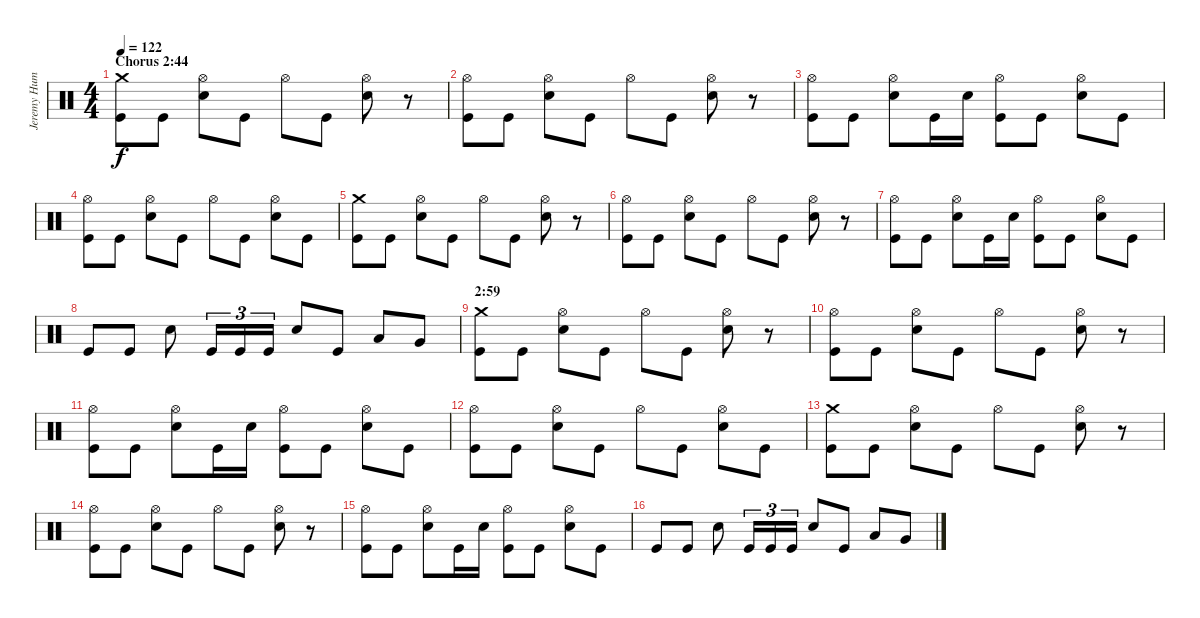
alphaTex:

\track ("Jeremy Hummel Drums]" "Jeremy Hum") {instrument percussion}
\staff {score}
\articulation defaults
\ts (4 4)
\section ("" "Chorus 2:44")
\tempo 122
\clef neutral
\ks c
("Crash medium (hit)" "Kick (hit)").8{dy f} "Kick (hit)".8 ("Hi-Hat (open)" "Electric Snare (hit)").8 "Kick (hit)".8 "Hi-Hat (open)".8 "Kick (hit)".8 ("Hi-Hat (open)" "Electric Snare (hit)").8 r.8 |
("Hi-Hat (open)" "Kick (hit)").8 "Kick (hit)".8 ("Hi-Hat (open)" "Electric Snare (hit)").8 "Kick (hit)".8 "Hi-Hat (open)".8 "Kick (hit)".8 ("Hi-Hat (open)" "Electric Snare (hit)").8 r.8 |
("Hi-Hat (open)" "Kick (hit)").8 "Kick (hit)".8 ("Hi-Hat (open)" "Electric Snare (hit)").8 "Kick (hit)".16 "Electric Snare (hit)".16 ("Hi-Hat (open)" "Kick (hit)").8 "Kick (hit)".8 ("Hi-Hat (open)" "Electric Snare (hit)").8 "Kick (hit)".8 |
("Hi-Hat (open)" "Kick (hit)").8 "Kick (hit)".8 ("Hi-Hat (open)" "Electric Snare (hit)").8 "Kick (hit)".8 "Hi-Hat (open)".8 "Kick (hit)".8 ("Hi-Hat (open)" "Electric Snare (hit)").8 "Kick (hit)".8 |
("Crash medium (hit)" "Kick (hit)").8 "Kick (hit)".8 ("Hi-Hat (open)" "Electric Snare (hit)").8 "Kick (hit)".8 "Hi-Hat (open)".8 "Kick (hit)".8 ("Hi-Hat (open)" "Electric Snare (hit)").8 r.8 |
("Hi-Hat (open)" "Kick (hit)").8 "Kick (hit)".8 ("Hi-Hat (open)" "Electric Snare (hit)").8 "Kick (hit)".8 "Hi-Hat (open)".8 "Kick (hit)".8 ("Hi-Hat (open)" "Electric Snare (hit)").8 r.8 |
("Hi-Hat (open)" "Kick (hit)").8 "Kick (hit)".8 ("Hi-Hat (open)" "Electric Snare (hit)").8 "Kick (hit)".16 "Electric Snare (hit)".16 ("Hi-Hat (open)" "Kick (hit)").8 "Kick (hit)".8 ("Hi-Hat (open)" "Electric Snare (hit)").8 "Kick (hit)".8 |
"Kick (hit)".8 "Kick (hit)".8 "Electric Snare (hit)".8 "Kick (hit)".16{tu (3 2)} "Kick (hit)".16{tu (3 2)} "Kick (hit)".16{tu (3 2)} "Electric Snare (hit)".8 "Kick (hit)".8 "Low Tom (hit)".8 "Very Low Tom (hit)".8 |
\section ("" "2:59")
("Crash medium (hit)" "Kick (hit)").8 "Kick (hit)".8 ("Hi-Hat (open)" "Electric Snare (hit)").8 "Kick (hit)".8 "Hi-Hat (open)".8 "Kick (hit)".8 ("Hi-Hat (open)" "Electric Snare (hit)").8 r.8 |
("Hi-Hat (open)" "Kick (hit)").8 "Kick (hit)".8 ("Hi-Hat (open)" "Electric Snare (hit)").8 "Kick (hit)".8 "Hi-Hat (open)".8 "Kick (hit)".8 ("Hi-Hat (open)" "Electric Snare (hit)").8 r.8 |
("Hi-Hat (open)" "Kick (hit)").8 "Kick (hit)".8 ("Hi-Hat (open)" "Electric Snare (hit)").8 "Kick (hit)".16 "Electric Snare (hit)".16 ("Hi-Hat (open)" "Kick (hit)").8 "Kick (hit)".8 ("Hi-Hat (open)" "Electric Snare (hit)").8 "Kick (hit)".8 |
("Hi-Hat (open)" "Kick (hit)").8 "Kick (hit)".8 ("Hi-Hat (open)" "Electric Snare (hit)").8 "Kick (hit)".8 "Hi-Hat (open)".8 "Kick (hit)".8 ("Hi-Hat (open)" "Electric Snare (hit)").8 "Kick (hit)".8 |
("Crash medium (hit)" "Kick (hit)").8 "Kick (hit)".8 ("Hi-Hat (open)" "Electric Snare (hit)").8 "Kick (hit)".8 "Hi-Hat (open)".8 "Kick (hit)".8 ("Hi-Hat (open)" "Electric Snare (hit)").8 r.8 |
("Hi-Hat (open)" "Kick (hit)").8 "Kick (hit)".8 ("Hi-Hat (open)" "Electric Snare (hit)").8 "Kick (hit)".8 "Hi-Hat (open)".8 "Kick (hit)".8 ("Hi-Hat (open)" "Electric Snare (hit)").8 r.8 |
("Hi-Hat (open)" "Kick (hit)").8 "Kick (hit)".8 ("Hi-Hat (open)" "Electric Snare (hit)").8 "Kick (hit)".16 "Electric Snare (hit)".16 ("Hi-Hat (open)" "Kick (hit)").8 "Kick (hit)".8 ("Hi-Hat (open)" "Electric Snare (hit)").8 "Kick (hit)".8 |
"Kick (hit)".8 "Kick (hit)".8 "Electric Snare (hit)".8 "Kick (hit)".16{tu (3 2)} "Kick (hit)".16{tu (3 2)} "Kick (hit)".16{tu (3 2)} "Electric Snare (hit)".8 "Kick (hit)".8 "Low Tom (hit)".8 "Very Low Tom (hit)".8
